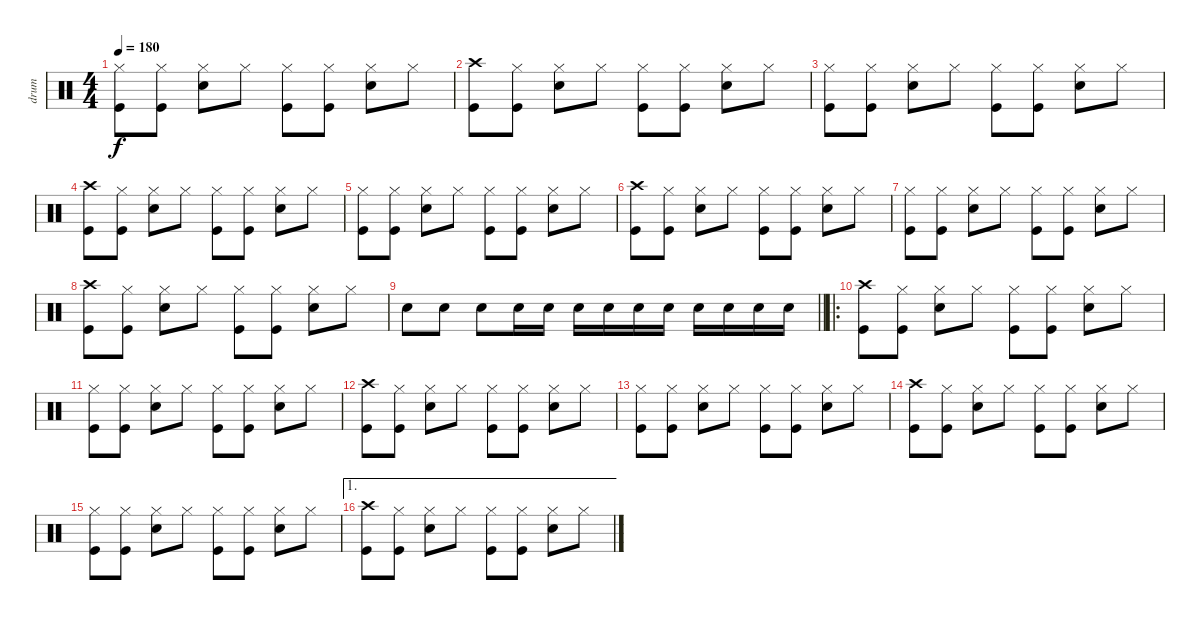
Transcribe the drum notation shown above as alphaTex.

\track ("drum" "drum") {instrument percussion}
\staff {score}
\articulation defaults
\ts (4 4)
\tempo 180
\clef neutral
\ks c
("Hi-Hat (closed)" "Kick (hit)").8{dy f} ("Kick (hit)" "Hi-Hat (closed)").8 ("Snare (hit) 2" "Hi-Hat (closed)").8 "Hi-Hat (closed)".8 ("Kick (hit)" "Hi-Hat (closed)").8 ("Kick (hit)" "Hi-Hat (closed)").8 ("Snare (hit) 2" "Hi-Hat (closed)").8 "Hi-Hat (closed)".8 |
("Crash high (hit)" "Kick (hit)").8 ("Kick (hit)" "Hi-Hat (closed)").8 ("Snare (hit) 2" "Hi-Hat (closed)").8 "Hi-Hat (closed)".8 ("Kick (hit)" "Hi-Hat (closed)").8 ("Kick (hit)" "Hi-Hat (closed)").8 ("Snare (hit) 2" "Hi-Hat (closed)").8 "Hi-Hat (closed)".8 |
("Hi-Hat (closed)" "Kick (hit)").8 ("Kick (hit)" "Hi-Hat (closed)").8 ("Snare (hit) 2" "Hi-Hat (closed)").8 "Hi-Hat (closed)".8 ("Kick (hit)" "Hi-Hat (closed)").8 ("Kick (hit)" "Hi-Hat (closed)").8 ("Snare (hit) 2" "Hi-Hat (closed)").8 "Hi-Hat (closed)".8 |
("Crash high (hit)" "Kick (hit)").8 ("Kick (hit)" "Hi-Hat (closed)").8 ("Snare (hit) 2" "Hi-Hat (closed)").8 "Hi-Hat (closed)".8 ("Kick (hit)" "Hi-Hat (closed)").8 ("Kick (hit)" "Hi-Hat (closed)").8 ("Snare (hit) 2" "Hi-Hat (closed)").8 "Hi-Hat (closed)".8 |
("Hi-Hat (closed)" "Kick (hit)").8 ("Kick (hit)" "Hi-Hat (closed)").8 ("Snare (hit) 2" "Hi-Hat (closed)").8 "Hi-Hat (closed)".8 ("Kick (hit)" "Hi-Hat (closed)").8 ("Kick (hit)" "Hi-Hat (closed)").8 ("Snare (hit) 2" "Hi-Hat (closed)").8 "Hi-Hat (closed)".8 |
("Crash high (hit)" "Kick (hit)").8 ("Kick (hit)" "Hi-Hat (closed)").8 ("Snare (hit) 2" "Hi-Hat (closed)").8 "Hi-Hat (closed)".8 ("Kick (hit)" "Hi-Hat (closed)").8 ("Kick (hit)" "Hi-Hat (closed)").8 ("Snare (hit) 2" "Hi-Hat (closed)").8 "Hi-Hat (closed)".8 |
("Hi-Hat (closed)" "Kick (hit)").8 ("Kick (hit)" "Hi-Hat (closed)").8 ("Snare (hit) 2" "Hi-Hat (closed)").8 "Hi-Hat (closed)".8 ("Kick (hit)" "Hi-Hat (closed)").8 ("Kick (hit)" "Hi-Hat (closed)").8 ("Snare (hit) 2" "Hi-Hat (closed)").8 "Hi-Hat (closed)".8 |
("Crash high (hit)" "Kick (hit)").8 ("Kick (hit)" "Hi-Hat (closed)").8 ("Snare (hit) 2" "Hi-Hat (closed)").8 "Hi-Hat (closed)".8 ("Kick (hit)" "Hi-Hat (closed)").8 ("Kick (hit)" "Hi-Hat (closed)").8 ("Snare (hit) 2" "Hi-Hat (closed)").8 "Hi-Hat (closed)".8 |
\barLineRight lightlight "Snare (hit) 2".8 "Snare (hit) 2".8 "Snare (hit) 2".8 "Snare (hit) 2".16 "Snare (hit) 2".16 "Snare (hit) 2".16 "Snare (hit) 2".16 "Snare (hit) 2".16 "Snare (hit) 2".16 "Snare (hit) 2".16 "Snare (hit) 2".16 "Snare (hit) 2".16 "Snare (hit) 2".16
|
\ro
("Crash high (hit)" "Kick (hit)").8 ("Kick (hit)" "Hi-Hat (closed)").8 ("Snare (hit) 2" "Hi-Hat (closed)").8 "Hi-Hat (closed)".8 ("Kick (hit)" "Hi-Hat (closed)").8 ("Kick (hit)" "Hi-Hat (closed)").8 ("Snare (hit) 2" "Hi-Hat (closed)").8 "Hi-Hat (closed)".8 |
("Hi-Hat (closed)" "Kick (hit)").8 ("Kick (hit)" "Hi-Hat (closed)").8 ("Snare (hit) 2" "Hi-Hat (closed)").8 "Hi-Hat (closed)".8 ("Kick (hit)" "Hi-Hat (closed)").8 ("Kick (hit)" "Hi-Hat (closed)").8 ("Snare (hit) 2" "Hi-Hat (closed)").8 "Hi-Hat (closed)".8 |
("Crash high (hit)" "Kick (hit)").8 ("Kick (hit)" "Hi-Hat (closed)").8 ("Snare (hit) 2" "Hi-Hat (closed)").8 "Hi-Hat (closed)".8 ("Kick (hit)" "Hi-Hat (closed)").8 ("Kick (hit)" "Hi-Hat (closed)").8 ("Snare (hit) 2" "Hi-Hat (closed)").8 "Hi-Hat (closed)".8 |
("Hi-Hat (closed)" "Kick (hit)").8 ("Kick (hit)" "Hi-Hat (closed)").8 ("Snare (hit) 2" "Hi-Hat (closed)").8 "Hi-Hat (closed)".8 ("Kick (hit)" "Hi-Hat (closed)").8 ("Kick (hit)" "Hi-Hat (closed)").8 ("Snare (hit) 2" "Hi-Hat (closed)").8 "Hi-Hat (closed)".8 |
("Crash high (hit)" "Kick (hit)").8 ("Kick (hit)" "Hi-Hat (closed)").8 ("Snare (hit) 2" "Hi-Hat (closed)").8 "Hi-Hat (closed)".8 ("Kick (hit)" "Hi-Hat (closed)").8 ("Kick (hit)" "Hi-Hat (closed)").8 ("Snare (hit) 2" "Hi-Hat (closed)").8 "Hi-Hat (closed)".8 |
("Hi-Hat (closed)" "Kick (hit)").8 ("Kick (hit)" "Hi-Hat (closed)").8 ("Snare (hit) 2" "Hi-Hat (closed)").8 "Hi-Hat (closed)".8 ("Kick (hit)" "Hi-Hat (closed)").8 ("Kick (hit)" "Hi-Hat (closed)").8 ("Snare (hit) 2" "Hi-Hat (closed)").8 "Hi-Hat (closed)".8 |
\ae 1
("Crash high (hit)" "Kick (hit)").8 ("Kick (hit)" "Hi-Hat (closed)").8 ("Snare (hit) 2" "Hi-Hat (closed)").8 "Hi-Hat (closed)".8 ("Kick (hit)" "Hi-Hat (closed)").8 ("Kick (hit)" "Hi-Hat (closed)").8 ("Snare (hit) 2" "Hi-Hat (closed)").8 "Hi-Hat (closed)".8
